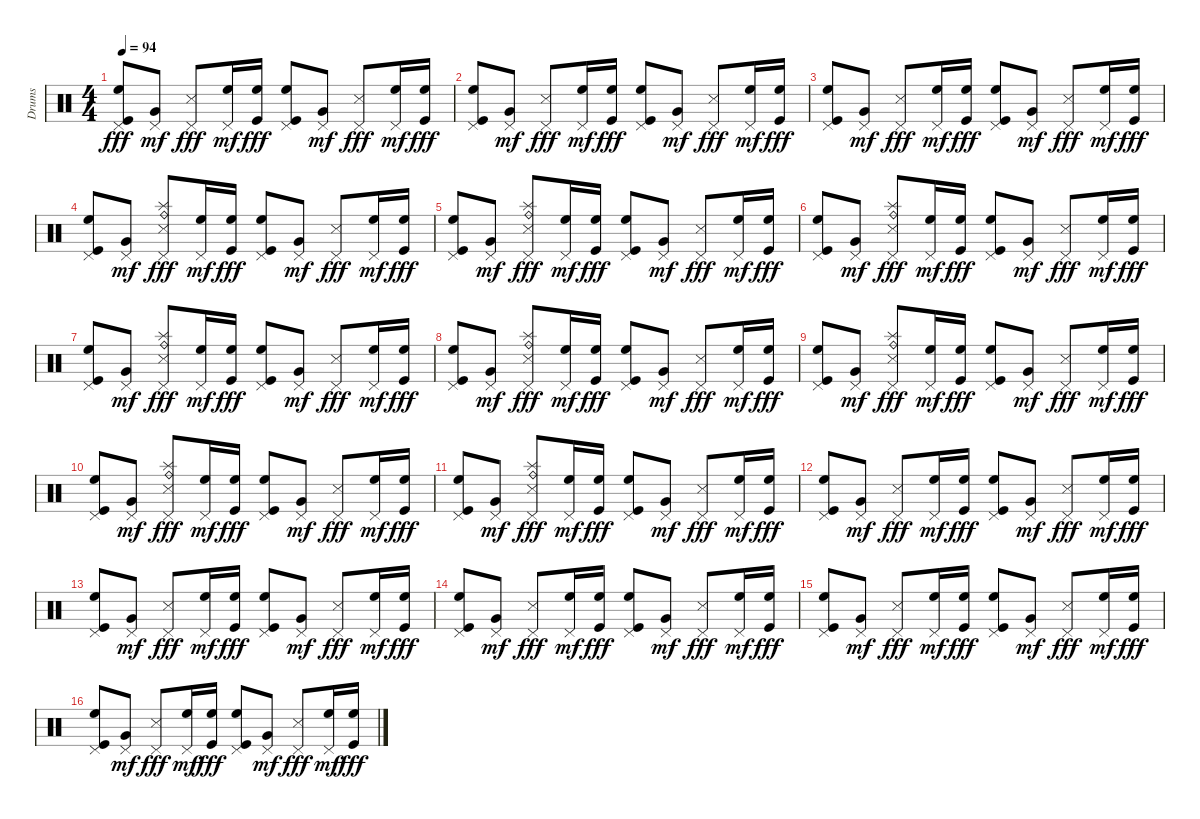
\track ("Drums" "Drums") {instrument percussion}
\staff {score}
\articulation defaults
\ts (4 4)
\tempo 94
\clef neutral
\ks c
("Pedal Hi-Hat (hit)" "High Floor Tom (hit)" "Kick (hit)").8{dy fff} ("Pedal Hi-Hat (hit)" "Very Low Tom (hit)").8{dy mf} ("Pedal Hi-Hat (hit)" "Snare (side stick) 3").8{dy fff} ("Pedal Hi-Hat (hit)" "High Floor Tom (hit)").16{dy mf} ("High Floor Tom (hit)" "Kick (hit)").16{dy fff} ("Pedal Hi-Hat (hit)" "High Floor Tom (hit)" "Kick (hit)").8 ("Pedal Hi-Hat (hit)" "Very Low Tom (hit)").8{dy mf} ("Pedal Hi-Hat (hit)" "Snare (side stick) 3").8{dy fff} ("Pedal Hi-Hat (hit)" "High Floor Tom (hit)").16{dy mf} ("High Floor Tom (hit)" "Kick (hit)").16{dy fff} |
("Pedal Hi-Hat (hit)" "High Floor Tom (hit)" "Kick (hit)").8 ("Pedal Hi-Hat (hit)" "Very Low Tom (hit)").8{dy mf} ("Pedal Hi-Hat (hit)" "Snare (side stick) 3").8{dy fff} ("Pedal Hi-Hat (hit)" "High Floor Tom (hit)").16{dy mf} ("High Floor Tom (hit)" "Kick (hit)").16{dy fff} ("Pedal Hi-Hat (hit)" "High Floor Tom (hit)" "Kick (hit)").8 ("Pedal Hi-Hat (hit)" "Very Low Tom (hit)").8{dy mf} ("Pedal Hi-Hat (hit)" "Snare (side stick) 3").8{dy fff} ("Pedal Hi-Hat (hit)" "High Floor Tom (hit)").16{dy mf} ("High Floor Tom (hit)" "Kick (hit)").16{dy fff} |
("Pedal Hi-Hat (hit)" "High Floor Tom (hit)" "Kick (hit)").8 ("Pedal Hi-Hat (hit)" "Very Low Tom (hit)").8{dy mf} ("Pedal Hi-Hat (hit)" "Snare (side stick) 3").8{dy fff} ("Pedal Hi-Hat (hit)" "High Floor Tom (hit)").16{dy mf} ("High Floor Tom (hit)" "Kick (hit)").16{dy fff} ("Pedal Hi-Hat (hit)" "High Floor Tom (hit)" "Kick (hit)").8 ("Pedal Hi-Hat (hit)" "Very Low Tom (hit)").8{dy mf} ("Pedal Hi-Hat (hit)" "Snare (side stick) 3").8{dy fff} ("Pedal Hi-Hat (hit)" "High Floor Tom (hit)").16{dy mf} ("High Floor Tom (hit)" "Kick (hit)").16{dy fff} |
("Pedal Hi-Hat (hit)" "High Floor Tom (hit)" "Kick (hit)").8 ("Pedal Hi-Hat (hit)" "Very Low Tom (hit)").8{dy mf} ("Splash (hit)" "Ride (bell)" "Pedal Hi-Hat (hit)" "Snare (side stick) 3").8{dy fff} ("Pedal Hi-Hat (hit)" "High Floor Tom (hit)").16{dy mf} ("High Floor Tom (hit)" "Kick (hit)").16{dy fff} ("Pedal Hi-Hat (hit)" "High Floor Tom (hit)" "Kick (hit)").8 ("Pedal Hi-Hat (hit)" "Very Low Tom (hit)").8{dy mf} ("Pedal Hi-Hat (hit)" "Snare (side stick) 3").8{dy fff} ("Pedal Hi-Hat (hit)" "High Floor Tom (hit)").16{dy mf} ("High Floor Tom (hit)" "Kick (hit)").16{dy fff} |
("Pedal Hi-Hat (hit)" "High Floor Tom (hit)" "Kick (hit)").8 ("Pedal Hi-Hat (hit)" "Very Low Tom (hit)").8{dy mf} ("Splash (hit)" "Ride (bell)" "Pedal Hi-Hat (hit)" "Snare (side stick) 3").8{dy fff} ("Pedal Hi-Hat (hit)" "High Floor Tom (hit)").16{dy mf} ("High Floor Tom (hit)" "Kick (hit)").16{dy fff} ("Pedal Hi-Hat (hit)" "High Floor Tom (hit)" "Kick (hit)").8 ("Pedal Hi-Hat (hit)" "Very Low Tom (hit)").8{dy mf} ("Pedal Hi-Hat (hit)" "Snare (side stick) 3").8{dy fff} ("Pedal Hi-Hat (hit)" "High Floor Tom (hit)").16{dy mf} ("High Floor Tom (hit)" "Kick (hit)").16{dy fff} |
("Pedal Hi-Hat (hit)" "High Floor Tom (hit)" "Kick (hit)").8 ("Pedal Hi-Hat (hit)" "Very Low Tom (hit)").8{dy mf} ("Splash (hit)" "Ride (bell)" "Pedal Hi-Hat (hit)" "Snare (side stick) 3").8{dy fff} ("Pedal Hi-Hat (hit)" "High Floor Tom (hit)").16{dy mf} ("High Floor Tom (hit)" "Kick (hit)").16{dy fff} ("Pedal Hi-Hat (hit)" "High Floor Tom (hit)" "Kick (hit)").8 ("Pedal Hi-Hat (hit)" "Very Low Tom (hit)").8{dy mf} ("Pedal Hi-Hat (hit)" "Snare (side stick) 3").8{dy fff} ("Pedal Hi-Hat (hit)" "High Floor Tom (hit)").16{dy mf} ("High Floor Tom (hit)" "Kick (hit)").16{dy fff} |
("Pedal Hi-Hat (hit)" "High Floor Tom (hit)" "Kick (hit)").8 ("Pedal Hi-Hat (hit)" "Very Low Tom (hit)").8{dy mf} ("Splash (hit)" "Ride (bell)" "Pedal Hi-Hat (hit)" "Snare (side stick) 3").8{dy fff} ("Pedal Hi-Hat (hit)" "High Floor Tom (hit)").16{dy mf} ("High Floor Tom (hit)" "Kick (hit)").16{dy fff} ("Pedal Hi-Hat (hit)" "High Floor Tom (hit)" "Kick (hit)").8 ("Pedal Hi-Hat (hit)" "Very Low Tom (hit)").8{dy mf} ("Pedal Hi-Hat (hit)" "Snare (side stick) 3").8{dy fff} ("Pedal Hi-Hat (hit)" "High Floor Tom (hit)").16{dy mf} ("High Floor Tom (hit)" "Kick (hit)").16{dy fff} |
("Pedal Hi-Hat (hit)" "High Floor Tom (hit)" "Kick (hit)").8 ("Pedal Hi-Hat (hit)" "Very Low Tom (hit)").8{dy mf} ("Splash (hit)" "Ride (bell)" "Pedal Hi-Hat (hit)" "Snare (side stick) 3").8{dy fff} ("Pedal Hi-Hat (hit)" "High Floor Tom (hit)").16{dy mf} ("High Floor Tom (hit)" "Kick (hit)").16{dy fff} ("Pedal Hi-Hat (hit)" "High Floor Tom (hit)" "Kick (hit)").8 ("Pedal Hi-Hat (hit)" "Very Low Tom (hit)").8{dy mf} ("Pedal Hi-Hat (hit)" "Snare (side stick) 3").8{dy fff} ("Pedal Hi-Hat (hit)" "High Floor Tom (hit)").16{dy mf} ("High Floor Tom (hit)" "Kick (hit)").16{dy fff} |
("Pedal Hi-Hat (hit)" "High Floor Tom (hit)" "Kick (hit)").8 ("Pedal Hi-Hat (hit)" "Very Low Tom (hit)").8{dy mf} ("Splash (hit)" "Ride (bell)" "Pedal Hi-Hat (hit)" "Snare (side stick) 3").8{dy fff} ("Pedal Hi-Hat (hit)" "High Floor Tom (hit)").16{dy mf} ("High Floor Tom (hit)" "Kick (hit)").16{dy fff} ("Pedal Hi-Hat (hit)" "High Floor Tom (hit)" "Kick (hit)").8 ("Pedal Hi-Hat (hit)" "Very Low Tom (hit)").8{dy mf} ("Pedal Hi-Hat (hit)" "Snare (side stick) 3").8{dy fff} ("Pedal Hi-Hat (hit)" "High Floor Tom (hit)").16{dy mf} ("High Floor Tom (hit)" "Kick (hit)").16{dy fff} |
("Pedal Hi-Hat (hit)" "High Floor Tom (hit)" "Kick (hit)").8 ("Pedal Hi-Hat (hit)" "Very Low Tom (hit)").8{dy mf} ("Splash (hit)" "Ride (bell)" "Pedal Hi-Hat (hit)" "Snare (side stick) 3").8{dy fff} ("Pedal Hi-Hat (hit)" "High Floor Tom (hit)").16{dy mf} ("High Floor Tom (hit)" "Kick (hit)").16{dy fff} ("Pedal Hi-Hat (hit)" "High Floor Tom (hit)" "Kick (hit)").8 ("Pedal Hi-Hat (hit)" "Very Low Tom (hit)").8{dy mf} ("Pedal Hi-Hat (hit)" "Snare (side stick) 3").8{dy fff} ("Pedal Hi-Hat (hit)" "High Floor Tom (hit)").16{dy mf} ("High Floor Tom (hit)" "Kick (hit)").16{dy fff} |
("Pedal Hi-Hat (hit)" "High Floor Tom (hit)" "Kick (hit)").8 ("Pedal Hi-Hat (hit)" "Very Low Tom (hit)").8{dy mf} ("Splash (hit)" "Ride (bell)" "Pedal Hi-Hat (hit)" "Snare (side stick) 3").8{dy fff} ("Pedal Hi-Hat (hit)" "High Floor Tom (hit)").16{dy mf} ("High Floor Tom (hit)" "Kick (hit)").16{dy fff} ("Pedal Hi-Hat (hit)" "High Floor Tom (hit)" "Kick (hit)").8 ("Pedal Hi-Hat (hit)" "Very Low Tom (hit)").8{dy mf} ("Pedal Hi-Hat (hit)" "Snare (side stick) 3").8{dy fff} ("Pedal Hi-Hat (hit)" "High Floor Tom (hit)").16{dy mf} ("High Floor Tom (hit)" "Kick (hit)").16{dy fff} |
("Pedal Hi-Hat (hit)" "High Floor Tom (hit)" "Kick (hit)").8 ("Pedal Hi-Hat (hit)" "Very Low Tom (hit)").8{dy mf} ("Pedal Hi-Hat (hit)" "Snare (side stick) 3").8{dy fff} ("Pedal Hi-Hat (hit)" "High Floor Tom (hit)").16{dy mf} ("High Floor Tom (hit)" "Kick (hit)").16{dy fff} ("Pedal Hi-Hat (hit)" "High Floor Tom (hit)" "Kick (hit)").8 ("Pedal Hi-Hat (hit)" "Very Low Tom (hit)").8{dy mf} ("Pedal Hi-Hat (hit)" "Snare (side stick) 3").8{dy fff} ("Pedal Hi-Hat (hit)" "High Floor Tom (hit)").16{dy mf} ("High Floor Tom (hit)" "Kick (hit)").16{dy fff} |
("Pedal Hi-Hat (hit)" "High Floor Tom (hit)" "Kick (hit)").8 ("Pedal Hi-Hat (hit)" "Very Low Tom (hit)").8{dy mf} ("Pedal Hi-Hat (hit)" "Snare (side stick) 3").8{dy fff} ("Pedal Hi-Hat (hit)" "High Floor Tom (hit)").16{dy mf} ("High Floor Tom (hit)" "Kick (hit)").16{dy fff} ("Pedal Hi-Hat (hit)" "High Floor Tom (hit)" "Kick (hit)").8 ("Pedal Hi-Hat (hit)" "Very Low Tom (hit)").8{dy mf} ("Pedal Hi-Hat (hit)" "Snare (side stick) 3").8{dy fff} ("Pedal Hi-Hat (hit)" "High Floor Tom (hit)").16{dy mf} ("High Floor Tom (hit)" "Kick (hit)").16{dy fff} |
("Pedal Hi-Hat (hit)" "High Floor Tom (hit)" "Kick (hit)").8 ("Pedal Hi-Hat (hit)" "Very Low Tom (hit)").8{dy mf} ("Pedal Hi-Hat (hit)" "Snare (side stick) 3").8{dy fff} ("Pedal Hi-Hat (hit)" "High Floor Tom (hit)").16{dy mf} ("High Floor Tom (hit)" "Kick (hit)").16{dy fff} ("Pedal Hi-Hat (hit)" "High Floor Tom (hit)" "Kick (hit)").8 ("Pedal Hi-Hat (hit)" "Very Low Tom (hit)").8{dy mf} ("Pedal Hi-Hat (hit)" "Snare (side stick) 3").8{dy fff} ("Pedal Hi-Hat (hit)" "High Floor Tom (hit)").16{dy mf} ("High Floor Tom (hit)" "Kick (hit)").16{dy fff} |
("Pedal Hi-Hat (hit)" "High Floor Tom (hit)" "Kick (hit)").8 ("Pedal Hi-Hat (hit)" "Very Low Tom (hit)").8{dy mf} ("Pedal Hi-Hat (hit)" "Snare (side stick) 3").8{dy fff} ("Pedal Hi-Hat (hit)" "High Floor Tom (hit)").16{dy mf} ("High Floor Tom (hit)" "Kick (hit)").16{dy fff} ("Pedal Hi-Hat (hit)" "High Floor Tom (hit)" "Kick (hit)").8 ("Pedal Hi-Hat (hit)" "Very Low Tom (hit)").8{dy mf} ("Pedal Hi-Hat (hit)" "Snare (side stick) 3").8{dy fff} ("Pedal Hi-Hat (hit)" "High Floor Tom (hit)").16{dy mf} ("High Floor Tom (hit)" "Kick (hit)").16{dy fff} |
("Pedal Hi-Hat (hit)" "High Floor Tom (hit)" "Kick (hit)").8 ("Pedal Hi-Hat (hit)" "Very Low Tom (hit)").8{dy mf} ("Pedal Hi-Hat (hit)" "Snare (side stick) 3").8{dy fff} ("Pedal Hi-Hat (hit)" "High Floor Tom (hit)").16{dy mf} ("High Floor Tom (hit)" "Kick (hit)").16{dy fff} ("Pedal Hi-Hat (hit)" "High Floor Tom (hit)" "Kick (hit)").8 ("Pedal Hi-Hat (hit)" "Very Low Tom (hit)").8{dy mf} ("Pedal Hi-Hat (hit)" "Snare (side stick) 3").8{dy fff} ("Pedal Hi-Hat (hit)" "High Floor Tom (hit)").16{dy mf} ("High Floor Tom (hit)" "Kick (hit)").16{dy fff}
